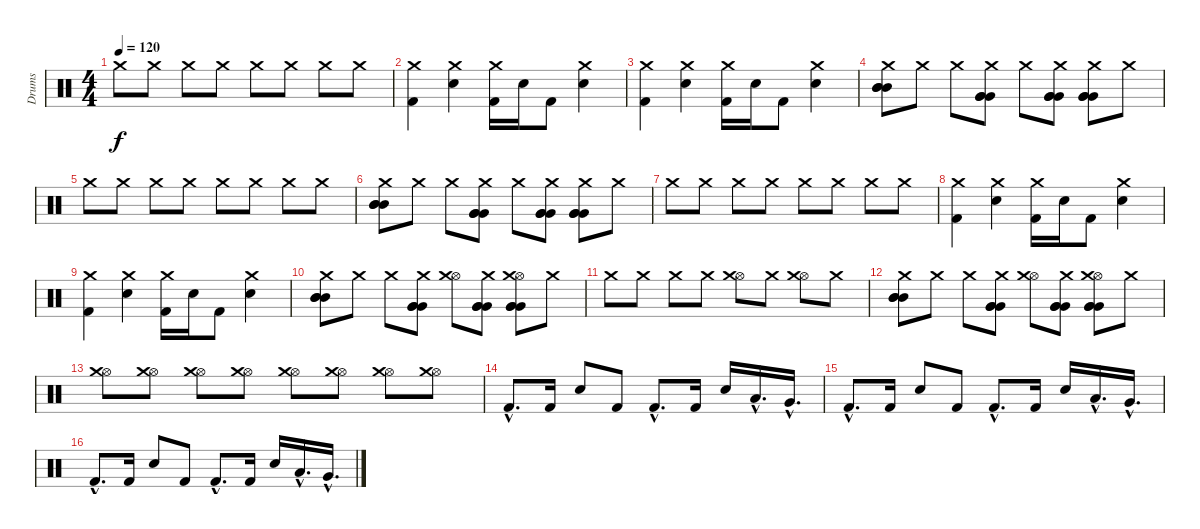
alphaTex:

\track ("Drums" "Drums") {instrument percussion}
\staff {score}
\articulation defaults
\ts (4 4)
\tempo 120
\clef neutral
\ks c "Crash medium (hit)".8{dy f volume 10} "Crash medium (hit)".8 "Crash medium (hit)".8 "Crash medium (hit)".8 "Crash medium (hit)".8 "Crash medium (hit)".8 "Crash medium (hit)".8 "Crash medium (hit)".8
|
("Crash medium (hit)" "Kick (hit) 2").4 ("Crash medium (hit)" "Snare (hit) 2").4 ("Crash medium (hit)" "Kick (hit) 2").16 "Snare (hit) 2".16 "Kick (hit) 2".8 ("Crash medium (hit)" "Snare (hit) 2").4 |
("Crash medium (hit)" "Kick (hit) 2").4 ("Crash medium (hit)" "Snare (hit) 2").4 ("Crash medium (hit)" "Kick (hit) 2").16 "Snare (hit) 2".16 "Kick (hit) 2".8 ("Crash medium (hit)" "Snare (hit) 2").4 |
("Crash medium (hit)" "Mid Tom (hit)" "Mid Tom (hit)" "Mid Tom (hit)").8{volume 16} "Crash medium (hit)".8 "Crash medium (hit)".8 ("Crash medium (hit)" "Very Low Tom (hit)" "Very Low Tom (hit)" "Very Low Tom (hit)").8 "Crash medium (hit)".8 ("Crash medium (hit)" "Very Low Tom (hit)" "Very Low Tom (hit)" "Very Low Tom (hit)").8 ("Crash medium (hit)" "Very Low Tom (hit)" "Very Low Tom (hit)" "Very Low Tom (hit)").8 "Crash medium (hit)".8 |
"Crash medium (hit)".8{volume 10} "Crash medium (hit)".8 "Crash medium (hit)".8 "Crash medium (hit)".8 "Crash medium (hit)".8 "Crash medium (hit)".8 "Crash medium (hit)".8 "Crash medium (hit)".8 |
("Crash medium (hit)" "Mid Tom (hit)" "Mid Tom (hit)" "Mid Tom (hit)").8{volume 16} "Crash medium (hit)".8 "Crash medium (hit)".8 ("Crash medium (hit)" "Very Low Tom (hit)" "Very Low Tom (hit)" "Very Low Tom (hit)").8 "Crash medium (hit)".8 ("Crash medium (hit)" "Very Low Tom (hit)" "Very Low Tom (hit)" "Very Low Tom (hit)").8 ("Crash medium (hit)" "Very Low Tom (hit)" "Very Low Tom (hit)" "Very Low Tom (hit)").8 "Crash medium (hit)".8 |
"Crash medium (hit)".8{volume 10} "Crash medium (hit)".8 "Crash medium (hit)".8 "Crash medium (hit)".8 "Crash medium (hit)".8 "Crash medium (hit)".8 "Crash medium (hit)".8 "Crash medium (hit)".8 |
("Crash medium (hit)" "Kick (hit) 2").4 ("Crash medium (hit)" "Snare (hit) 2").4 ("Crash medium (hit)" "Kick (hit) 2").16 "Snare (hit) 2".16 "Kick (hit) 2".8 ("Crash medium (hit)" "Snare (hit) 2").4 |
("Crash medium (hit)" "Kick (hit) 2").4 ("Crash medium (hit)" "Snare (hit) 2").4 ("Crash medium (hit)" "Kick (hit) 2").16 "Snare (hit) 2".16 "Kick (hit) 2".8 ("Crash medium (hit)" "Snare (hit) 2").4 |
("Crash medium (hit)" "Mid Tom (hit)" "Mid Tom (hit)" "Mid Tom (hit)").8{volume 16} "Crash medium (hit)".8 "Crash medium (hit)".8 ("Crash medium (hit)" "Very Low Tom (hit)" "Very Low Tom (hit)" "Very Low Tom (hit)").8 ("Hi-Hat (open)" "Crash medium (hit)").8 ("Crash medium (hit)" "Very Low Tom (hit)" "Very Low Tom (hit)" "Very Low Tom (hit)").8 ("Hi-Hat (open)" "Crash medium (hit)" "Very Low Tom (hit)" "Very Low Tom (hit)" "Very Low Tom (hit)").8 "Crash medium (hit)".8 |
"Crash medium (hit)".8{volume 10} "Crash medium (hit)".8 "Crash medium (hit)".8 "Crash medium (hit)".8 ("Hi-Hat (open)" "Crash medium (hit)").8 "Crash medium (hit)".8 ("Hi-Hat (open)" "Crash medium (hit)").8 "Crash medium (hit)".8 |
("Crash medium (hit)" "Mid Tom (hit)" "Mid Tom (hit)" "Mid Tom (hit)").8{volume 16} "Crash medium (hit)".8 "Crash medium (hit)".8 ("Crash medium (hit)" "Very Low Tom (hit)" "Very Low Tom (hit)" "Very Low Tom (hit)").8 ("Hi-Hat (open)" "Crash medium (hit)").8 ("Crash medium (hit)" "Very Low Tom (hit)" "Very Low Tom (hit)" "Very Low Tom (hit)").8 ("Hi-Hat (open)" "Crash medium (hit)" "Very Low Tom (hit)" "Very Low Tom (hit)" "Very Low Tom (hit)").8 "Crash medium (hit)".8 |
("Hi-Hat (open)" "Crash medium (hit)").8{volume 10} ("Hi-Hat (open)" "Crash medium (hit)").8 ("Hi-Hat (open)" "Crash medium (hit)").8 ("Hi-Hat (open)" "Crash medium (hit)").8 ("Hi-Hat (open)" "Crash medium (hit)").8 ("Hi-Hat (open)" "Crash medium (hit)").8 ("Hi-Hat (open)" "Crash medium (hit)").8 ("Hi-Hat (open)" "Crash medium (hit)").8 |
"Kick (hit) 2"{hac}.8{d} "Kick (hit) 2".16 "Electric Snare (hit)".8 "Kick (hit) 2".8 "Kick (hit) 2"{hac}.8{d} "Kick (hit) 2".16 "Electric Snare (hit)".16 "Low Tom (hit)"{hac}.16{d} "Very Low Tom (hit)"{hac}.16{d} |
"Kick (hit) 2"{hac}.8{d} "Kick (hit) 2".16 "Electric Snare (hit)".8 "Kick (hit) 2".8 "Kick (hit) 2"{hac}.8{d} "Kick (hit) 2".16 "Electric Snare (hit)".16 "Low Tom (hit)"{hac}.16{d} "Very Low Tom (hit)"{hac}.16{d} |
"Kick (hit) 2"{hac}.8{d} "Kick (hit) 2".16 "Electric Snare (hit)".8 "Kick (hit) 2".8 "Kick (hit) 2"{hac}.8{d} "Kick (hit) 2".16 "Electric Snare (hit)".16 "Low Tom (hit)"{hac}.16{d} "Very Low Tom (hit)"{hac}.16{d}
